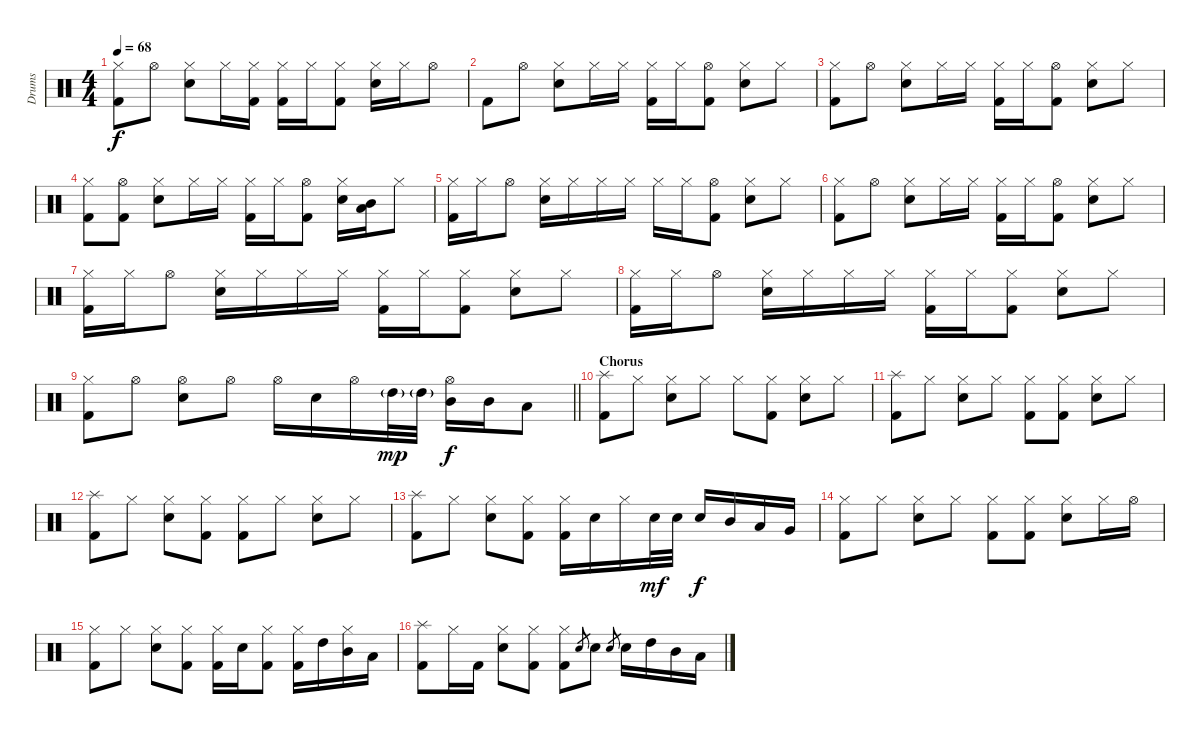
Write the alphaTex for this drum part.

\track ("Drums" "Drums") {instrument percussion}
\staff {score}
\articulation defaults
\ts (4 4)
\tempo 68
\clef neutral
\ks c
("Hi-Hat (closed)" "Kick (hit) 2").8{dy f} "Hi-Hat (open)".8 ("Hi-Hat (closed)" "Electric Snare (hit)").8 "Hi-Hat (closed)".16 ("Hi-Hat (closed)" "Kick (hit) 2").16 ("Hi-Hat (closed)" "Kick (hit) 2").16 "Hi-Hat (closed)".16 ("Hi-Hat (closed)" "Kick (hit) 2").8 ("Hi-Hat (closed)" "Electric Snare (hit)").16 "Hi-Hat (closed)".16 "Hi-Hat (open)".8 |
"Kick (hit) 2".8 "Hi-Hat (open)".8 ("Hi-Hat (closed)" "Electric Snare (hit)").8 "Hi-Hat (closed)".16 "Hi-Hat (closed)".16 ("Hi-Hat (closed)" "Kick (hit) 2").16 "Hi-Hat (closed)".16 ("Hi-Hat (open)" "Kick (hit) 2").8 ("Hi-Hat (closed)" "Electric Snare (hit)").8 "Hi-Hat (closed)".8 |
("Hi-Hat (closed)" "Kick (hit) 2").8 "Hi-Hat (open)".8 ("Hi-Hat (closed)" "Electric Snare (hit)").8 "Hi-Hat (closed)".16 "Hi-Hat (closed)".16 ("Hi-Hat (closed)" "Kick (hit) 2").16 "Hi-Hat (closed)".16 ("Hi-Hat (open)" "Kick (hit) 2").8 ("Hi-Hat (closed)" "Electric Snare (hit)").8 "Hi-Hat (closed)".8 |
("Hi-Hat (closed)" "Kick (hit) 2").8 ("Hi-Hat (open)" "Kick (hit) 2").8 ("Hi-Hat (closed)" "Electric Snare (hit)").8 "Hi-Hat (closed)".16 "Hi-Hat (closed)".16 ("Hi-Hat (closed)" "Kick (hit) 2").16 "Hi-Hat (closed)".16 ("Hi-Hat (open)" "Kick (hit) 2").8 ("Hi-Hat (closed)" "Electric Snare (hit)").16 ("Mid Tom (hit)" "Low Tom (hit)").16 "Hi-Hat (closed)".8 |
("Hi-Hat (closed)" "Kick (hit) 2").16 "Hi-Hat (closed)".16 "Hi-Hat (open)".8 ("Hi-Hat (closed)" "Electric Snare (hit)").16 "Hi-Hat (closed)".16 "Hi-Hat (closed)".16 "Hi-Hat (closed)".16 "Hi-Hat (closed)".16 "Hi-Hat (closed)".16 ("Hi-Hat (open)" "Kick (hit) 2").8 ("Hi-Hat (closed)" "Electric Snare (hit)").8 "Hi-Hat (closed)".8 |
("Hi-Hat (closed)" "Kick (hit) 2").8 "Hi-Hat (open)".8 ("Hi-Hat (closed)" "Electric Snare (hit)").8 "Hi-Hat (closed)".16 "Hi-Hat (closed)".16 ("Hi-Hat (closed)" "Kick (hit) 2").16 "Hi-Hat (closed)".16 ("Hi-Hat (open)" "Kick (hit) 2").8 ("Hi-Hat (closed)" "Electric Snare (hit)").8 "Hi-Hat (closed)".8 |
("Hi-Hat (closed)" "Kick (hit) 2").16 "Hi-Hat (closed)".16 "Hi-Hat (open)".8 ("Hi-Hat (closed)" "Electric Snare (hit)").16 "Hi-Hat (closed)".16 "Hi-Hat (closed)".16 "Hi-Hat (closed)".16 ("Hi-Hat (closed)" "Kick (hit) 2").16 "Hi-Hat (closed)".16 ("Hi-Hat (closed)" "Kick (hit) 2").8 ("Hi-Hat (closed)" "Electric Snare (hit)").8 "Hi-Hat (closed)".8 |
("Hi-Hat (closed)" "Kick (hit) 2").16 "Hi-Hat (closed)".16 "Hi-Hat (open)".8 ("Hi-Hat (closed)" "Electric Snare (hit)").16 "Hi-Hat (closed)".16 "Hi-Hat (closed)".16 "Hi-Hat (closed)".16 ("Hi-Hat (closed)" "Kick (hit) 2").16 "Hi-Hat (closed)".16 ("Hi-Hat (closed)" "Kick (hit) 2").8 ("Hi-Hat (closed)" "Electric Snare (hit)").8 "Hi-Hat (closed)".8 |
\barLineRight lightlight
("Hi-Hat (closed)" "Kick (hit) 2").8 "Hi-Hat (open)".8 ("Hi-Hat (open)" "Electric Snare (hit)").8 "Hi-Hat (open)".8 "Hi-Hat (open)".16 "Electric Snare (hit)".16 "Hi-Hat (open)".16 "High Tom (hit)"{g}.32{dy mp} "High Tom (hit)"{g}.32 ("Hi-Hat (open)" "Mid Tom (hit)").16{dy f} "Mid Tom (hit)".16 "Low Tom (hit)".8 |
\section ("" "Chorus")
("Splash (hit)" "Kick (hit) 2").8 "Hi-Hat (closed)".8 ("Hi-Hat (closed)" "Snare (hit) 2").8 "Hi-Hat (closed)".8 "Hi-Hat (closed)".8 ("Hi-Hat (closed)" "Kick (hit) 2").8 ("Hi-Hat (closed)" "Snare (hit) 2").8 "Hi-Hat (closed)".8 |
("Splash (hit)" "Kick (hit) 2").8 "Hi-Hat (closed)".8 ("Hi-Hat (closed)" "Snare (hit) 2").8 "Hi-Hat (closed)".8 ("Hi-Hat (closed)" "Kick (hit) 2").8 ("Hi-Hat (closed)" "Kick (hit) 2").8 ("Hi-Hat (closed)" "Snare (hit) 2").8 "Hi-Hat (closed)".8 |
("Splash (hit)" "Kick (hit) 2").8 "Hi-Hat (closed)".8 ("Hi-Hat (closed)" "Snare (hit) 2").8 ("Hi-Hat (closed)" "Kick (hit) 2").8 ("Hi-Hat (closed)" "Kick (hit) 2").8 "Hi-Hat (closed)".8 ("Hi-Hat (closed)" "Snare (hit) 2").8 "Hi-Hat (closed)".8 |
("Splash (hit)" "Kick (hit) 2").8 "Hi-Hat (closed)".8 ("Hi-Hat (closed)" "Snare (hit) 2").8 ("Hi-Hat (closed)" "Kick (hit) 2").8 ("Hi-Hat (closed)" "Kick (hit) 2").16 "Snare (hit) 2".16 "Hi-Hat (closed)".16 "Snare (hit) 2".32{dy mf} "Snare (hit) 2".32 "Snare (hit) 2".16{dy f} "Mid Tom (hit)".16 "Low Tom (hit)".16 "Very Low Tom (hit)".16 |
("Hi-Hat (closed)" "Kick (hit) 2").8 "Hi-Hat (closed)".8 ("Hi-Hat (closed)" "Snare (hit) 2").8 "Hi-Hat (closed)".8 ("Hi-Hat (closed)" "Kick (hit) 2").8 ("Hi-Hat (closed)" "Kick (hit) 2").8 ("Hi-Hat (closed)" "Snare (hit) 2").8 "Hi-Hat (closed)".16 "Hi-Hat (open)".16 |
("Hi-Hat (closed)" "Kick (hit) 2").8 "Hi-Hat (closed)".8 ("Hi-Hat (closed)" "Snare (hit) 2").8 ("Hi-Hat (closed)" "Kick (hit) 2").8 ("Hi-Hat (closed)" "Kick (hit) 2").16 "Snare (hit) 2".16 ("Hi-Hat (closed)" "Kick (hit) 2").8 ("Hi-Hat (closed)" "Kick (hit) 2").16 "High Tom (hit)".16 ("Hi-Hat (closed)" "Mid Tom (hit)").16 "Low Tom (hit)".16 |
("Splash (hit)" "Kick (hit) 2").8 "Hi-Hat (closed)".16 "Kick (hit) 2".16 ("Hi-Hat (closed)" "Snare (hit) 2").8 ("Hi-Hat (closed)" "Kick (hit) 2").8 ("Hi-Hat (closed)" "Kick (hit) 2").8 "Snare (hit) 2".8{gr} "Snare (hit) 2".8 "Snare (hit) 2".8{gr} "Snare (hit) 2".16 "High Tom (hit)".16 "Mid Tom (hit)".16 "Low Tom (hit)".16
